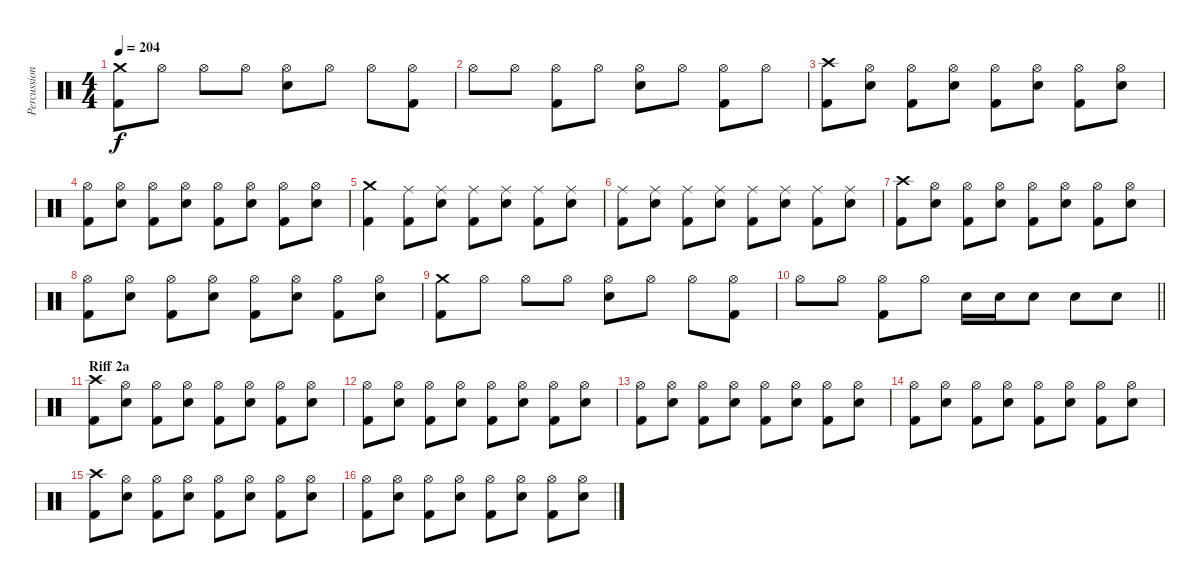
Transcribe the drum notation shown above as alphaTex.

\track ("Percussions" "Percussion") {instrument percussion}
\staff {score}
\articulation defaults
\ts (4 4)
\tempo 204
\clef neutral
\ks c
("Crash medium (hit)" "Kick (hit) 2").8{dy f} "Hi-Hat (open)".8 "Hi-Hat (open)".8 "Hi-Hat (open)".8 ("Hi-Hat (open)" "Electric Snare (hit)").8 "Hi-Hat (open)".8 "Hi-Hat (open)".8 ("Hi-Hat (open)" "Kick (hit) 2").8 |
"Hi-Hat (open)".8 "Hi-Hat (open)".8 ("Hi-Hat (open)" "Kick (hit) 2").8 "Hi-Hat (open)".8 ("Hi-Hat (open)" "Electric Snare (hit)").8 "Hi-Hat (open)".8 ("Hi-Hat (open)" "Kick (hit) 2").8 "Hi-Hat (open)".8 |
("Crash high (hit)" "Kick (hit) 2").8 ("Hi-Hat (open)" "Electric Snare (hit)").8 ("Hi-Hat (open)" "Kick (hit) 2").8 ("Hi-Hat (open)" "Electric Snare (hit)").8 ("Hi-Hat (open)" "Kick (hit) 2").8 ("Hi-Hat (open)" "Electric Snare (hit)").8 ("Hi-Hat (open)" "Kick (hit) 2").8 ("Hi-Hat (open)" "Electric Snare (hit)").8 |
("Hi-Hat (open)" "Kick (hit) 2").8 ("Hi-Hat (open)" "Electric Snare (hit)").8 ("Hi-Hat (open)" "Kick (hit) 2").8 ("Hi-Hat (open)" "Electric Snare (hit)").8 ("Hi-Hat (open)" "Kick (hit) 2").8 ("Hi-Hat (open)" "Electric Snare (hit)").8 ("Hi-Hat (open)" "Kick (hit) 2").8 ("Hi-Hat (open)" "Electric Snare (hit)").8 |
("Crash medium (hit)" "Kick (hit) 2").4 ("Ride (middle)" "Kick (hit) 2").8 ("Ride (middle)" "Electric Snare (hit)").8 ("Ride (middle)" "Kick (hit) 2").8 ("Ride (middle)" "Electric Snare (hit)").8 ("Ride (middle)" "Kick (hit) 2").8 ("Ride (middle)" "Electric Snare (hit)").8 |
("Ride (middle)" "Kick (hit) 2").8 ("Ride (middle)" "Electric Snare (hit)").8 ("Ride (middle)" "Kick (hit) 2").8 ("Ride (middle)" "Electric Snare (hit)").8 ("Ride (middle)" "Kick (hit) 2").8 ("Ride (middle)" "Electric Snare (hit)").8 ("Ride (middle)" "Kick (hit) 2").8 ("Ride (middle)" "Electric Snare (hit)").8 |
("Crash high (hit)" "Kick (hit) 2").8 ("Hi-Hat (open)" "Electric Snare (hit)").8 ("Hi-Hat (open)" "Kick (hit) 2").8 ("Hi-Hat (open)" "Electric Snare (hit)").8 ("Hi-Hat (open)" "Kick (hit) 2").8 ("Hi-Hat (open)" "Electric Snare (hit)").8 ("Hi-Hat (open)" "Kick (hit) 2").8 ("Hi-Hat (open)" "Electric Snare (hit)").8 |
("Hi-Hat (open)" "Kick (hit) 2").8 ("Hi-Hat (open)" "Electric Snare (hit)").8 ("Hi-Hat (open)" "Kick (hit) 2").8 ("Hi-Hat (open)" "Electric Snare (hit)").8 ("Hi-Hat (open)" "Kick (hit) 2").8 ("Hi-Hat (open)" "Electric Snare (hit)").8 ("Hi-Hat (open)" "Kick (hit) 2").8 ("Hi-Hat (open)" "Electric Snare (hit)").8 |
("Crash medium (hit)" "Kick (hit) 2").8 "Hi-Hat (open)".8 "Hi-Hat (open)".8 "Hi-Hat (open)".8 ("Hi-Hat (open)" "Electric Snare (hit)").8 "Hi-Hat (open)".8 "Hi-Hat (open)".8 ("Hi-Hat (open)" "Kick (hit) 2").8 |
\barLineRight lightlight "Hi-Hat (open)".8 "Hi-Hat (open)".8
("Hi-Hat (open)" "Kick (hit) 2").8 "Hi-Hat (open)".8 "Electric Snare (hit)".16 "Electric Snare (hit)".16 "Electric Snare (hit)".8 "Electric Snare (hit)".8 "Electric Snare (hit)".8 |
\section ("" "Riff 2a")
("Crash high (hit)" "Kick (hit) 2").8 ("Hi-Hat (open)" "Electric Snare (hit)").8 ("Hi-Hat (open)" "Kick (hit) 2").8 ("Hi-Hat (open)" "Electric Snare (hit)").8 ("Hi-Hat (open)" "Kick (hit) 2").8 ("Hi-Hat (open)" "Electric Snare (hit)").8 ("Hi-Hat (open)" "Kick (hit) 2").8 ("Hi-Hat (open)" "Electric Snare (hit)").8 |
("Hi-Hat (open)" "Kick (hit) 2").8 ("Hi-Hat (open)" "Electric Snare (hit)").8 ("Hi-Hat (open)" "Kick (hit) 2").8 ("Hi-Hat (open)" "Electric Snare (hit)").8 ("Hi-Hat (open)" "Kick (hit) 2").8 ("Hi-Hat (open)" "Electric Snare (hit)").8 ("Hi-Hat (open)" "Kick (hit) 2").8 ("Hi-Hat (open)" "Electric Snare (hit)").8 |
("Hi-Hat (open)" "Kick (hit) 2").8 ("Hi-Hat (open)" "Electric Snare (hit)").8 ("Hi-Hat (open)" "Kick (hit) 2").8 ("Hi-Hat (open)" "Electric Snare (hit)").8 ("Hi-Hat (open)" "Kick (hit) 2").8 ("Hi-Hat (open)" "Electric Snare (hit)").8 ("Hi-Hat (open)" "Kick (hit) 2").8 ("Hi-Hat (open)" "Electric Snare (hit)").8 |
("Hi-Hat (open)" "Kick (hit) 2").8 ("Hi-Hat (open)" "Electric Snare (hit)").8 ("Hi-Hat (open)" "Kick (hit) 2").8 ("Hi-Hat (open)" "Electric Snare (hit)").8 ("Hi-Hat (open)" "Kick (hit) 2").8 ("Hi-Hat (open)" "Electric Snare (hit)").8 ("Hi-Hat (open)" "Kick (hit) 2").8 ("Hi-Hat (open)" "Electric Snare (hit)").8 |
("Crash high (hit)" "Kick (hit) 2").8 ("Hi-Hat (open)" "Electric Snare (hit)").8 ("Hi-Hat (open)" "Kick (hit) 2").8 ("Hi-Hat (open)" "Electric Snare (hit)").8 ("Hi-Hat (open)" "Kick (hit) 2").8 ("Hi-Hat (open)" "Electric Snare (hit)").8 ("Hi-Hat (open)" "Kick (hit) 2").8 ("Hi-Hat (open)" "Electric Snare (hit)").8 |
("Hi-Hat (open)" "Kick (hit) 2").8 ("Hi-Hat (open)" "Electric Snare (hit)").8 ("Hi-Hat (open)" "Kick (hit) 2").8 ("Hi-Hat (open)" "Electric Snare (hit)").8 ("Hi-Hat (open)" "Kick (hit) 2").8 ("Hi-Hat (open)" "Electric Snare (hit)").8 ("Hi-Hat (open)" "Kick (hit) 2").8 ("Hi-Hat (open)" "Electric Snare (hit)").8
